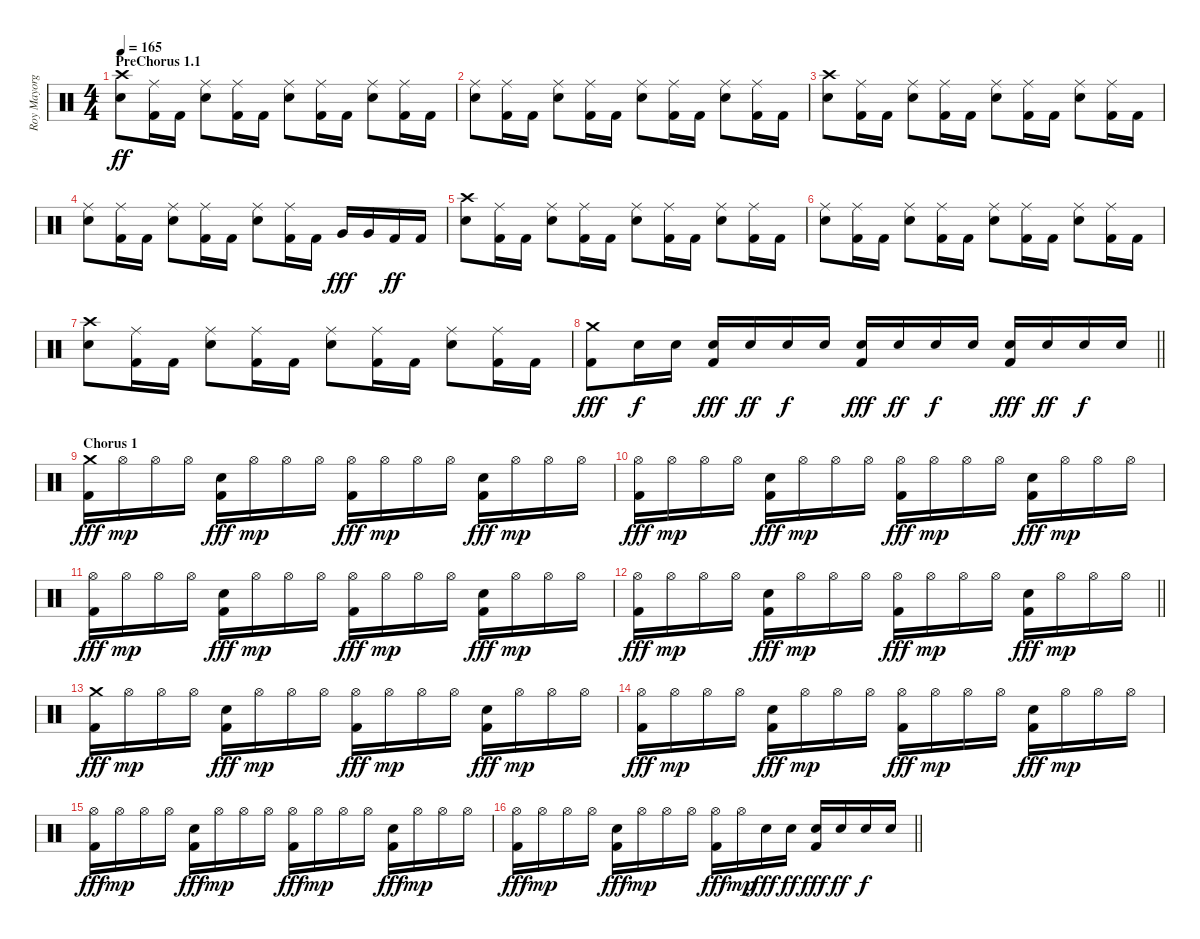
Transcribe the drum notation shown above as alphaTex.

\track ("Roy Mayorga" "Roy Mayorg") {instrument percussion}
\staff {score}
\articulation defaults
\ts (4 4)
\section ("" "PreChorus 1.1")
\tempo 165
\clef neutral
\ks c
("Crash high (hit)" "Electric Snare (hit)").8{dy ff} ("Ride (middle)" "Kick (hit) 2").16 "Kick (hit) 2".16 ("Ride (middle)" "Electric Snare (hit)").8 ("Ride (middle)" "Kick (hit) 2").16 "Kick (hit) 2".16 ("Ride (middle)" "Electric Snare (hit)").8 ("Ride (middle)" "Kick (hit) 2").16 "Kick (hit) 2".16 ("Ride (middle)" "Electric Snare (hit)").8 ("Ride (middle)" "Kick (hit) 2").16 "Kick (hit) 2".16 |
("Ride (middle)" "Electric Snare (hit)").8 ("Ride (middle)" "Kick (hit) 2").16 "Kick (hit) 2".16 ("Ride (middle)" "Electric Snare (hit)").8 ("Ride (middle)" "Kick (hit) 2").16 "Kick (hit) 2".16 ("Ride (middle)" "Electric Snare (hit)").8 ("Ride (middle)" "Kick (hit) 2").16 "Kick (hit) 2".16 ("Ride (middle)" "Electric Snare (hit)").8 ("Ride (middle)" "Kick (hit) 2").16 "Kick (hit) 2".16 |
("Crash high (hit)" "Electric Snare (hit)").8 ("Ride (middle)" "Kick (hit) 2").16 "Kick (hit) 2".16 ("Ride (middle)" "Electric Snare (hit)").8 ("Ride (middle)" "Kick (hit) 2").16 "Kick (hit) 2".16 ("Ride (middle)" "Electric Snare (hit)").8 ("Ride (middle)" "Kick (hit) 2").16 "Kick (hit) 2".16 ("Ride (middle)" "Electric Snare (hit)").8 ("Ride (middle)" "Kick (hit) 2").16 "Kick (hit) 2".16 |
("Ride (middle)" "Electric Snare (hit)").8 ("Ride (middle)" "Kick (hit) 2").16 "Kick (hit) 2".16 ("Ride (middle)" "Electric Snare (hit)").8 ("Ride (middle)" "Kick (hit) 2").16 "Kick (hit) 2".16 ("Ride (middle)" "Electric Snare (hit)").8 ("Ride (middle)" "Kick (hit) 2").16 "Kick (hit) 2".16 "Very Low Tom (hit)".16{dy fff} "Very Low Tom (hit)".16 "Kick (hit) 2".16{dy ff} "Kick (hit) 2".16 |
("Crash high (hit)" "Electric Snare (hit)").8 ("Ride (middle)" "Kick (hit) 2").16 "Kick (hit) 2".16 ("Ride (middle)" "Electric Snare (hit)").8 ("Ride (middle)" "Kick (hit) 2").16 "Kick (hit) 2".16 ("Ride (middle)" "Electric Snare (hit)").8 ("Ride (middle)" "Kick (hit) 2").16 "Kick (hit) 2".16 ("Ride (middle)" "Electric Snare (hit)").8 ("Ride (middle)" "Kick (hit) 2").16 "Kick (hit) 2".16 |
("Ride (middle)" "Electric Snare (hit)").8 ("Ride (middle)" "Kick (hit) 2").16 "Kick (hit) 2".16 ("Ride (middle)" "Electric Snare (hit)").8 ("Ride (middle)" "Kick (hit) 2").16 "Kick (hit) 2".16 ("Ride (middle)" "Electric Snare (hit)").8 ("Ride (middle)" "Kick (hit) 2").16 "Kick (hit) 2".16 ("Ride (middle)" "Electric Snare (hit)").8 ("Ride (middle)" "Kick (hit) 2").16 "Kick (hit) 2".16 |
("Crash high (hit)" "Electric Snare (hit)").8 ("Ride (middle)" "Kick (hit) 2").16 "Kick (hit) 2".16 ("Ride (middle)" "Electric Snare (hit)").8 ("Ride (middle)" "Kick (hit) 2").16 "Kick (hit) 2".16 ("Ride (middle)" "Electric Snare (hit)").8 ("Ride (middle)" "Kick (hit) 2").16 "Kick (hit) 2".16 ("Ride (middle)" "Electric Snare (hit)").8 ("Ride (middle)" "Kick (hit) 2").16 "Kick (hit) 2".16 |
\barLineRight lightlight
("Crash medium (hit)" "Kick (hit) 2").8{dy fff} "Electric Snare (hit)".16{dy f} "Electric Snare (hit)".16 ("Electric Snare (hit)" "Kick (hit) 2").16{dy fff} "Electric Snare (hit)".16{dy ff} "Electric Snare (hit)".16{dy f} "Electric Snare (hit)".16 ("Electric Snare (hit)" "Kick (hit) 2").16{dy fff} "Electric Snare (hit)".16{dy ff} "Electric Snare (hit)".16{dy f} "Electric Snare (hit)".16 ("Electric Snare (hit)" "Kick (hit) 2").16{dy fff} "Electric Snare (hit)".16{dy ff} "Electric Snare (hit)".16{dy f} "Electric Snare (hit)".16 |
\section ("" "Chorus 1")
("Crash medium (hit)" "Kick (hit) 2").16{dy fff} "Hi-Hat (open)".16{dy mp} "Hi-Hat (open)".16 "Hi-Hat (open)".16 ("Electric Snare (hit)" "Kick (hit) 2").16{dy fff} "Hi-Hat (open)".16{dy mp} "Hi-Hat (open)".16 "Hi-Hat (open)".16 ("Hi-Hat (open)" "Kick (hit) 2").16{dy fff} "Hi-Hat (open)".16{dy mp} "Hi-Hat (open)".16 "Hi-Hat (open)".16 ("Electric Snare (hit)" "Kick (hit) 2").16{dy fff} "Hi-Hat (open)".16{dy mp} "Hi-Hat (open)".16 "Hi-Hat (open)".16 |
("Hi-Hat (open)" "Kick (hit) 2").16{dy fff} "Hi-Hat (open)".16{dy mp} "Hi-Hat (open)".16 "Hi-Hat (open)".16 ("Electric Snare (hit)" "Kick (hit) 2").16{dy fff} "Hi-Hat (open)".16{dy mp} "Hi-Hat (open)".16 "Hi-Hat (open)".16 ("Hi-Hat (open)" "Kick (hit) 2").16{dy fff} "Hi-Hat (open)".16{dy mp} "Hi-Hat (open)".16 "Hi-Hat (open)".16 ("Electric Snare (hit)" "Kick (hit) 2").16{dy fff} "Hi-Hat (open)".16{dy mp} "Hi-Hat (open)".16 "Hi-Hat (open)".16 |
("Hi-Hat (open)" "Kick (hit) 2").16{dy fff} "Hi-Hat (open)".16{dy mp} "Hi-Hat (open)".16 "Hi-Hat (open)".16 ("Electric Snare (hit)" "Kick (hit) 2").16{dy fff} "Hi-Hat (open)".16{dy mp} "Hi-Hat (open)".16 "Hi-Hat (open)".16 ("Hi-Hat (open)" "Kick (hit) 2").16{dy fff} "Hi-Hat (open)".16{dy mp} "Hi-Hat (open)".16 "Hi-Hat (open)".16 ("Electric Snare (hit)" "Kick (hit) 2").16{dy fff} "Hi-Hat (open)".16{dy mp} "Hi-Hat (open)".16 "Hi-Hat (open)".16 |
\barLineRight lightlight
("Hi-Hat (open)" "Kick (hit) 2").16{dy fff} "Hi-Hat (open)".16{dy mp} "Hi-Hat (open)".16 "Hi-Hat (open)".16 ("Electric Snare (hit)" "Kick (hit) 2").16{dy fff} "Hi-Hat (open)".16{dy mp} "Hi-Hat (open)".16 "Hi-Hat (open)".16 ("Hi-Hat (open)" "Kick (hit) 2").16{dy fff} "Hi-Hat (open)".16{dy mp} "Hi-Hat (open)".16 "Hi-Hat (open)".16 ("Electric Snare (hit)" "Kick (hit) 2").16{dy fff} "Hi-Hat (open)".16{dy mp} "Hi-Hat (open)".16 "Hi-Hat (open)".16 |
("Crash medium (hit)" "Kick (hit) 2").16{dy fff} "Hi-Hat (open)".16{dy mp} "Hi-Hat (open)".16 "Hi-Hat (open)".16 ("Electric Snare (hit)" "Kick (hit) 2").16{dy fff} "Hi-Hat (open)".16{dy mp} "Hi-Hat (open)".16 "Hi-Hat (open)".16 ("Hi-Hat (open)" "Kick (hit) 2").16{dy fff} "Hi-Hat (open)".16{dy mp} "Hi-Hat (open)".16 "Hi-Hat (open)".16 ("Electric Snare (hit)" "Kick (hit) 2").16{dy fff} "Hi-Hat (open)".16{dy mp} "Hi-Hat (open)".16 "Hi-Hat (open)".16 |
("Hi-Hat (open)" "Kick (hit) 2").16{dy fff} "Hi-Hat (open)".16{dy mp} "Hi-Hat (open)".16 "Hi-Hat (open)".16 ("Electric Snare (hit)" "Kick (hit) 2").16{dy fff} "Hi-Hat (open)".16{dy mp} "Hi-Hat (open)".16 "Hi-Hat (open)".16 ("Hi-Hat (open)" "Kick (hit) 2").16{dy fff} "Hi-Hat (open)".16{dy mp} "Hi-Hat (open)".16 "Hi-Hat (open)".16 ("Electric Snare (hit)" "Kick (hit) 2").16{dy fff} "Hi-Hat (open)".16{dy mp} "Hi-Hat (open)".16 "Hi-Hat (open)".16 |
("Hi-Hat (open)" "Kick (hit) 2").16{dy fff} "Hi-Hat (open)".16{dy mp} "Hi-Hat (open)".16 "Hi-Hat (open)".16 ("Electric Snare (hit)" "Kick (hit) 2").16{dy fff} "Hi-Hat (open)".16{dy mp} "Hi-Hat (open)".16 "Hi-Hat (open)".16 ("Hi-Hat (open)" "Kick (hit) 2").16{dy fff} "Hi-Hat (open)".16{dy mp} "Hi-Hat (open)".16 "Hi-Hat (open)".16 ("Electric Snare (hit)" "Kick (hit) 2").16{dy fff} "Hi-Hat (open)".16{dy mp} "Hi-Hat (open)".16 "Hi-Hat (open)".16 |
\barLineRight lightlight
("Hi-Hat (open)" "Kick (hit) 2").16{dy fff} "Hi-Hat (open)".16{dy mp} "Hi-Hat (open)".16 "Hi-Hat (open)".16 ("Electric Snare (hit)" "Kick (hit) 2").16{dy fff} "Hi-Hat (open)".16{dy mp} "Hi-Hat (open)".16 "Hi-Hat (open)".16 ("Hi-Hat (open)" "Kick (hit) 2").16{dy fff} "Hi-Hat (open)".16{dy mp} "Electric Snare (hit)".16{dy fff} "Electric Snare (hit)".16{dy ff} ("Electric Snare (hit)" "Kick (hit) 2").16{dy fff} "Electric Snare (hit)".16{dy ff} "Electric Snare (hit)".16{dy f} "Electric Snare (hit)".16
